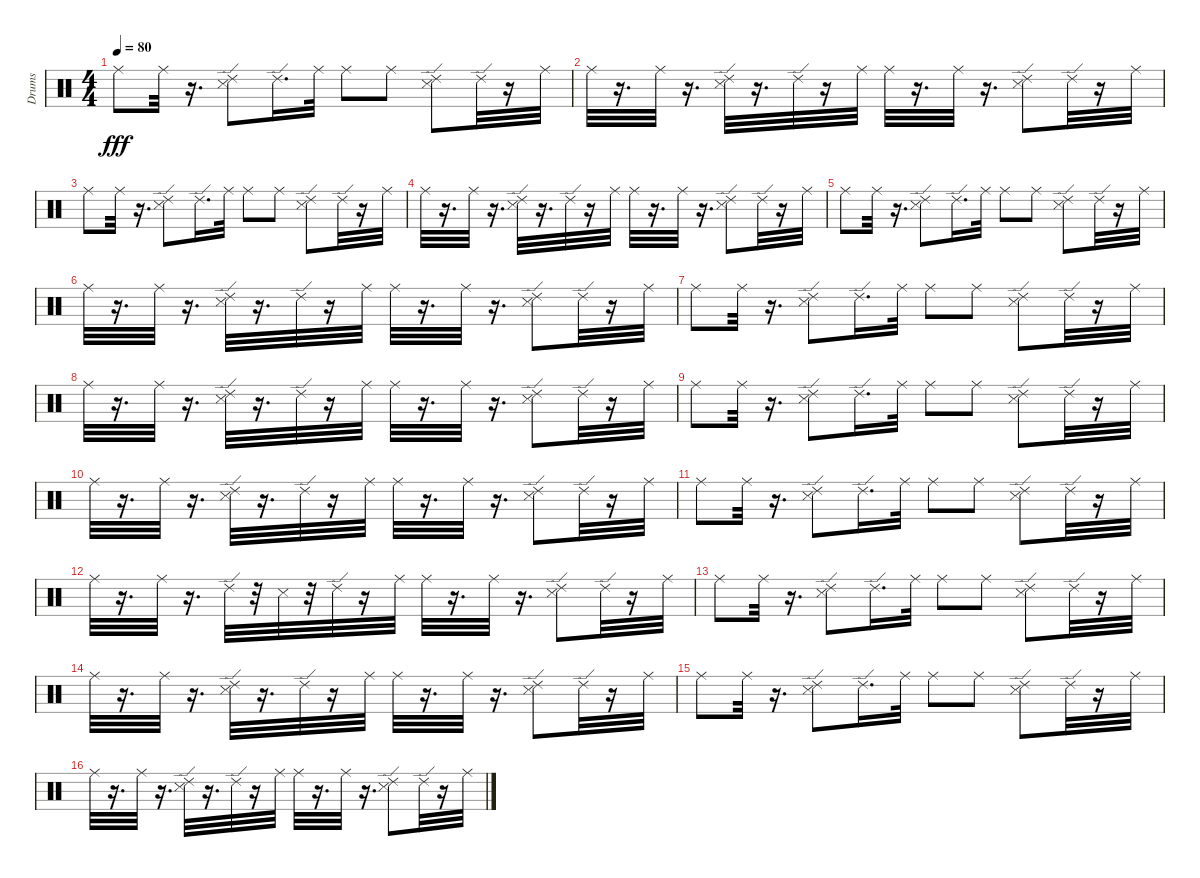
\track ("Drums   " "Drums   ") {instrument percussion}
\staff {score}
\articulation defaults
\ts (4 4)
\tempo 80
\clef neutral
\ks c "Ride (middle)".8{dy fff} "Ride (middle)".32
r.16{d} ("Snare (side stick) 3" "Ride (edge) 2").8 "Ride (edge) 2".16{d} "Ride (middle)".32 "Ride (middle)".8 "Ride (middle)".8 ("Snare (side stick) 3" "Ride (edge) 2").8 "Ride (edge) 2".32 r.16 "Ride (middle)".32 |
"Ride (middle)".32 r.16{d} "Ride (middle)".32 r.16{d} ("Snare (side stick) 3" "Ride (edge) 2").32 r.16{d} "Ride (edge) 2".32 r.16 "Ride (middle)".32 "Ride (middle)".32 r.16{d} "Ride (middle)".32 r.16{d} ("Snare (side stick) 3" "Ride (edge) 2").8 "Ride (edge) 2".32 r.16 "Ride (middle)".32 |
"Ride (middle)".8 "Ride (middle)".32 r.16{d} ("Snare (side stick) 3" "Ride (edge) 2").8 "Ride (edge) 2".16{d} "Ride (middle)".32 "Ride (middle)".8 "Ride (middle)".8 ("Snare (side stick) 3" "Ride (edge) 2").8 "Ride (edge) 2".32 r.16 "Ride (middle)".32 |
"Ride (middle)".32 r.16{d} "Ride (middle)".32 r.16{d} ("Snare (side stick) 3" "Ride (edge) 2").32 r.16{d} "Ride (edge) 2".32 r.16 "Ride (middle)".32 "Ride (middle)".32 r.16{d} "Ride (middle)".32 r.16{d} ("Snare (side stick) 3" "Ride (edge) 2").8 "Ride (edge) 2".32 r.16 "Ride (middle)".32 |
"Ride (middle)".8{volume 16} "Ride (middle)".32{volume 16} r.16{d} ("Snare (side stick) 3" "Ride (edge) 2").8{volume 16} "Ride (edge) 2".16{d volume 16} "Ride (middle)".32{volume 15} "Ride (middle)".8 "Ride (middle)".8{volume 15} ("Snare (side stick) 3" "Ride (edge) 2").8{volume 15} "Ride (edge) 2".32{volume 15} r.16 "Ride (middle)".32{volume 15} |
"Ride (middle)".32 r.16{d} "Ride (middle)".32{volume 15} r.16{d} ("Snare (side stick) 3" "Ride (edge) 2").32{volume 14} r.16{d} "Ride (edge) 2".32{volume 14} r.16 "Ride (middle)".32{volume 14} "Ride (middle)".32 r.16{d} "Ride (middle)".32{volume 14} r.16{d} ("Snare (side stick) 3" "Ride (edge) 2").8{volume 14} "Ride (edge) 2".32{volume 14} r.16 "Ride (middle)".32{volume 14} |
"Ride (middle)".8 "Ride (middle)".32{volume 14} r.16{d} ("Snare (side stick) 3" "Ride (edge) 2").8{volume 13} "Ride (edge) 2".16{d volume 13} "Ride (middle)".32 "Ride (middle)".8{volume 13} "Ride (middle)".8{volume 13} ("Snare (side stick) 3" "Ride (edge) 2").8{volume 13} "Ride (edge) 2".32{volume 13} r.16 "Ride (middle)".32{volume 12} |
"Ride (middle)".32 r.16{d} "Ride (middle)".32{volume 12} r.16{d} ("Snare (side stick) 3" "Ride (edge) 2").32{volume 12} r.16{d} "Ride (edge) 2".32{volume 12} r.16 "Ride (middle)".32{volume 12} "Ride (middle)".32 r.16{d} "Ride (middle)".32{volume 12} r.16{d} ("Snare (side stick) 3" "Ride (edge) 2").8{volume 12} "Ride (edge) 2".32{volume 12} r.16 "Ride (middle)".32{volume 11} |
"Ride (middle)".8{volume 11} "Ride (middle)".32 r.16{d} ("Snare (side stick) 3" "Ride (edge) 2").8 "Ride (edge) 2".16{d} "Ride (middle)".32 "Ride (middle)".8 "Ride (middle)".8 ("Snare (side stick) 3" "Ride (edge) 2").8 "Ride (edge) 2".32 r.16 "Ride (middle)".32 |
"Ride (middle)".32 r.16{d} "Ride (middle)".32 r.16{d} ("Snare (side stick) 3" "Ride (edge) 2").32 r.16{d} "Ride (edge) 2".32 r.16 "Ride (middle)".32 "Ride (middle)".32 r.16{d} "Ride (middle)".32 r.16{d} ("Snare (side stick) 3" "Ride (edge) 2").8 "Ride (edge) 2".32 r.16 "Ride (middle)".32 |
"Ride (middle)".8 "Ride (middle)".32 r.16{d} ("Snare (side stick) 3" "Ride (edge) 2").8 "Ride (edge) 2".16{d} "Ride (middle)".32 "Ride (middle)".8 "Ride (middle)".8 ("Snare (side stick) 3" "Ride (edge) 2").8 "Ride (edge) 2".32 r.16 "Ride (middle)".32 |
"Ride (middle)".32 r.16{d} "Ride (middle)".32 r.16{d} "Ride (edge) 2".32 r.32 "Snare (side stick) 3".32 r.32 "Ride (edge) 2".32 r.16 "Ride (middle)".32 "Ride (middle)".32 r.16{d} "Ride (middle)".32 r.16{d} ("Snare (side stick) 3" "Ride (edge) 2").8 "Ride (edge) 2".32 r.16 "Ride (middle)".32 |
"Ride (middle)".8 "Ride (middle)".32 r.16{d} ("Snare (side stick) 3" "Ride (edge) 2").8 "Ride (edge) 2".16{d} "Ride (middle)".32 "Ride (middle)".8 "Ride (middle)".8 ("Snare (side stick) 3" "Ride (edge) 2").8 "Ride (edge) 2".32 r.16 "Ride (middle)".32 |
"Ride (middle)".32 r.16{d} "Ride (middle)".32 r.16{d} ("Snare (side stick) 3" "Ride (edge) 2").32 r.16{d} "Ride (edge) 2".32 r.16 "Ride (middle)".32 "Ride (middle)".32 r.16{d} "Ride (middle)".32 r.16{d} ("Snare (side stick) 3" "Ride (edge) 2").8 "Ride (edge) 2".32 r.16 "Ride (middle)".32 |
"Ride (middle)".8 "Ride (middle)".32 r.16{d} ("Snare (side stick) 3" "Ride (edge) 2").8 "Ride (edge) 2".16{d} "Ride (middle)".32 "Ride (middle)".8 "Ride (middle)".8 ("Snare (side stick) 3" "Ride (edge) 2").8 "Ride (edge) 2".32 r.16 "Ride (middle)".32 |
"Ride (middle)".32 r.16{d} "Ride (middle)".32 r.16{d} ("Snare (side stick) 3" "Ride (edge) 2").32 r.16{d} "Ride (edge) 2".32 r.16 "Ride (middle)".32 "Ride (middle)".32 r.16{d} "Ride (middle)".32 r.16{d} ("Snare (side stick) 3" "Ride (edge) 2").8 "Ride (edge) 2".32 r.16 "Ride (middle)".32
